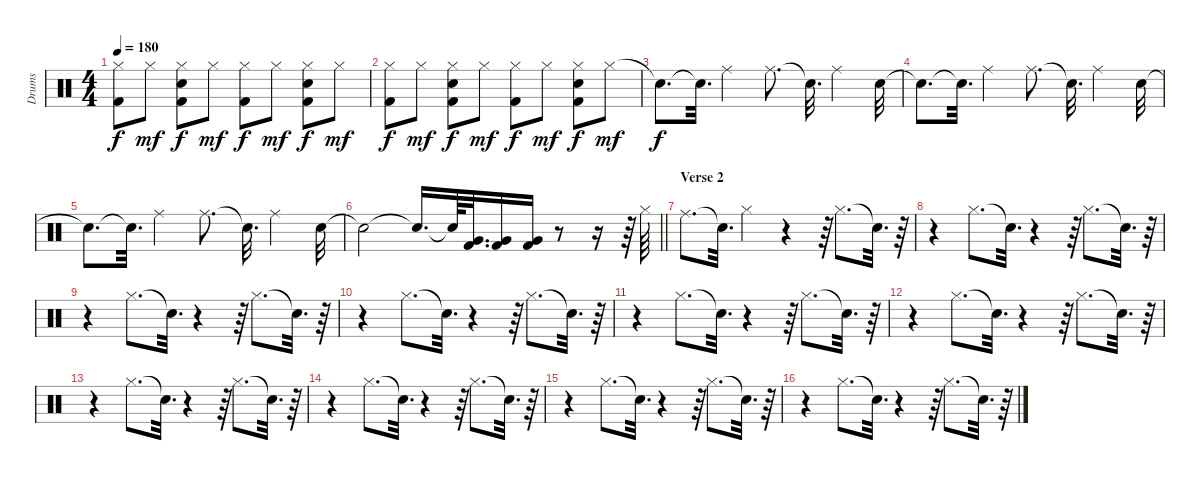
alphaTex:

\track ("Drums" "Drums") {instrument percussion}
\staff {score}
\articulation defaults
\ts (4 4)
\tempo 180
\clef neutral
\ks c
("Hi-Hat (closed)" "Kick (hit) 2").8{dy f} "Hi-Hat (closed)".8{dy mf} ("Hi-Hat (closed)" "Electric Snare (hit)" "Kick (hit) 2").8{dy f} "Hi-Hat (closed)".8{dy mf} ("Hi-Hat (closed)" "Kick (hit) 2").8{dy f} "Hi-Hat (closed)".8{dy mf} ("Hi-Hat (closed)" "Electric Snare (hit)" "Kick (hit) 2").8{dy f} "Hi-Hat (closed)".8{dy mf} |
("Hi-Hat (closed)" "Kick (hit) 2").8{dy f} "Hi-Hat (closed)".8{dy mf} ("Hi-Hat (closed)" "Electric Snare (hit)" "Kick (hit) 2").8{dy f} "Hi-Hat (closed)".8{dy mf} ("Hi-Hat (closed)" "Kick (hit) 2").8{dy f} "Hi-Hat (closed)".8{dy mf} ("Hi-Hat (closed)" "Electric Snare (hit)" "Kick (hit) 2").8{dy f} "Hi-Hat (closed)".8{dy mf} |
"Snare (hit)"{t}.8{d dy f} "Snare (hit)"{t}.32{d} "Ride (middle)".4 "Ride (middle)".8{d} "Snare (hit)"{t}.32{d} "Ride (middle)".4 "Snare (hit) 2".32 |
"Snare (hit)"{t}.8{d} "Snare (hit)"{t}.32{d} "Ride (middle)".4 "Ride (middle)".8{d} "Snare (hit)"{t}.32{d} "Ride (middle)".4 "Snare (hit) 2".32 |
"Snare (hit)"{t}.8{d} "Snare (hit)"{t}.32{d} "Ride (middle)".4 "Ride (middle)".8{d} "Snare (hit)"{t}.32{d} "Ride (middle)".4 "Snare (hit) 2".32 |
\barLineRight lightlight "Snare (hit)"{t}.2 "Snare (hit)"{t}.16{d} "Snare (hit)"{t}.64
("Kick (hit) 2" "Very Low Tom (hit)").32{d} ("Kick (hit) 2" "Very Low Tom (hit)").16 ("Very Low Tom (hit)" "Kick (hit) 2").16 r.8 r.16 r.64 "Hi-Hat (closed)".64 |
\section ("" "Verse 2")
"Ride (middle)".8{d} "Snare (hit)"{t}.32{d} "Hi-Hat (closed)".4 r.4 r.64 "Hi-Hat (closed)".8{d} "Snare (hit)"{t}.32{d} r.64 |
r.4 "Hi-Hat (closed)".8{d} "Snare (hit)"{t}.32{d} r.4 r.64 "Hi-Hat (closed)".8{d} "Snare (hit)"{t}.32{d} r.64 |
r.4 "Hi-Hat (closed)".8{d} "Snare (hit)"{t}.32{d} r.4 r.64 "Hi-Hat (closed)".8{d} "Snare (hit)"{t}.32{d} r.64 |
r.4 "Hi-Hat (closed)".8{d} "Snare (hit)"{t}.32{d} r.4 r.64 "Hi-Hat (closed)".8{d} "Snare (hit)"{t}.32{d} r.64 |
r.4 "Hi-Hat (closed)".8{d} "Snare (hit)"{t}.32{d} r.4 r.64 "Hi-Hat (closed)".8{d} "Snare (hit)"{t}.32{d} r.64 |
r.4 "Hi-Hat (closed)".8{d} "Snare (hit)"{t}.32{d} r.4 r.64 "Hi-Hat (closed)".8{d} "Snare (hit)"{t}.32{d} r.64 |
r.4 "Hi-Hat (closed)".8{d} "Snare (hit)"{t}.32{d} r.4 r.64 "Hi-Hat (closed)".8{d} "Snare (hit)"{t}.32{d} r.64 |
r.4 "Hi-Hat (closed)".8{d} "Snare (hit)"{t}.32{d} r.4 r.64 "Hi-Hat (closed)".8{d} "Snare (hit)"{t}.32{d} r.64 |
r.4 "Hi-Hat (closed)".8{d} "Snare (hit)"{t}.32{d} r.4 r.64 "Hi-Hat (closed)".8{d} "Snare (hit)"{t}.32{d} r.64 |
r.4 "Hi-Hat (closed)".8{d} "Snare (hit)"{t}.32{d} r.4 r.64 "Hi-Hat (closed)".8{d} "Snare (hit)"{t}.32{d} r.64
